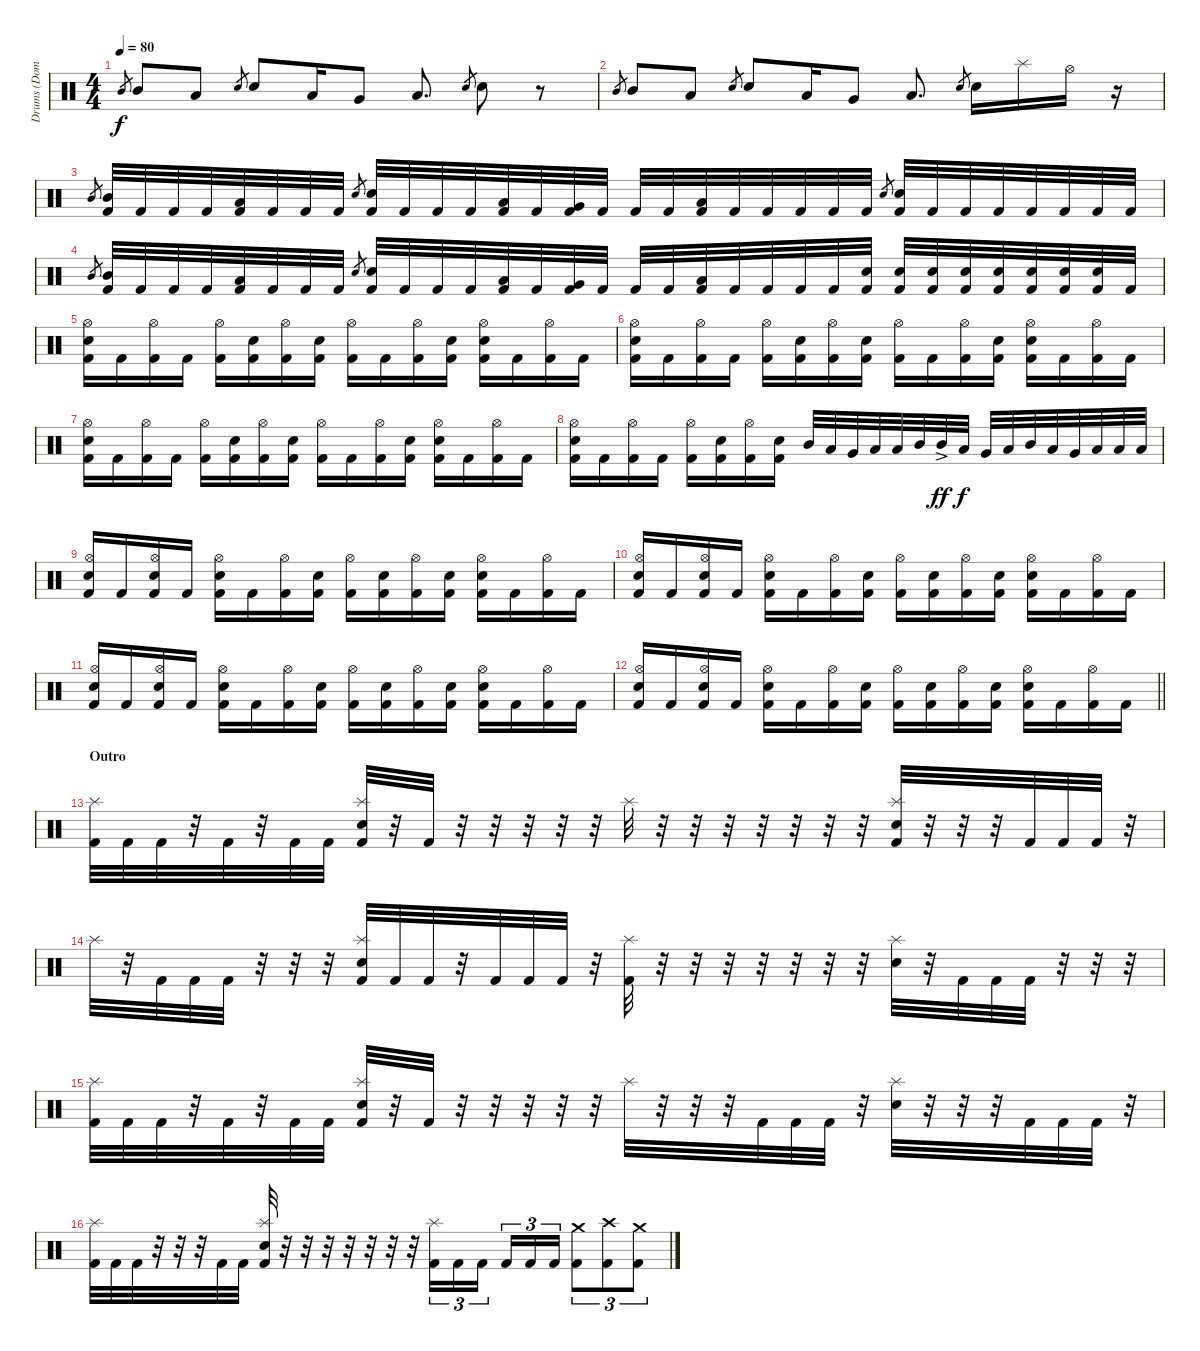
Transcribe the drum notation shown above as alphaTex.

\track ("Drums (Dominik)" "Drums (Dom") {instrument percussion}
\staff {score}
\articulation defaults
\ts (4 4)
\tempo 80
\clef neutral
\ks c "Mid Tom (hit)".8{gr dy f} "Mid Tom (hit)".8 "Low Tom (hit)".8 "Electric Snare (hit)".8{gr} "Electric Snare (hit)".8 "Low Tom (hit)".16 "Very Low Tom (hit)".8 "Low Floor Tom (hit)".8{d} "Electric Snare (hit)".8{gr} "Electric Snare (hit)".8
r.8 |
"Mid Tom (hit)".8{gr} "Mid Tom (hit)".8 "Low Tom (hit)".8 "Electric Snare (hit)".8{gr} "Electric Snare (hit)".8 "Low Tom (hit)".16 "Very Low Tom (hit)".8 "Low Floor Tom (hit)".8{d} "Electric Snare (hit)".8{gr} "Electric Snare (hit)".16 "Splash (hit)".16 "Hi-Hat (open)".16 r.16 |
"Mid Tom (hit)".8{gr} ("Mid Tom (hit)" "Kick (hit) 2").32 "Kick (hit) 2".32 "Kick (hit) 2".32 "Kick (hit) 2".32 ("Low Tom (hit)" "Kick (hit) 2").32 "Kick (hit) 2".32 "Kick (hit) 2".32 "Kick (hit) 2".32 "Electric Snare (hit)".8{gr} ("Electric Snare (hit)" "Kick (hit) 2").32 "Kick (hit) 2".32 "Kick (hit) 2".32 "Kick (hit) 2".32 ("Low Tom (hit)" "Kick (hit) 2").32 "Kick (hit) 2".32 ("Very Low Tom (hit)" "Kick (hit) 2").32 "Kick (hit) 2".32 "Kick (hit) 2".32 "Kick (hit) 2".32 ("Low Floor Tom (hit)" "Kick (hit) 2").32 "Kick (hit) 2".32 "Kick (hit) 2".32 "Kick (hit) 2".32 "Kick (hit) 2".32 "Kick (hit) 2".32 "Electric Snare (hit)".8{gr} ("Electric Snare (hit)" "Kick (hit) 2").32 "Kick (hit) 2".32 "Kick (hit) 2".32 "Kick (hit) 2".32 "Kick (hit) 2".32 "Kick (hit) 2".32 "Kick (hit) 2".32 "Kick (hit) 2".32 |
"Mid Tom (hit)".8{gr} ("Mid Tom (hit)" "Kick (hit) 2").32 "Kick (hit) 2".32 "Kick (hit) 2".32 "Kick (hit) 2".32 ("Low Tom (hit)" "Kick (hit) 2").32 "Kick (hit) 2".32 "Kick (hit) 2".32 "Kick (hit) 2".32 "Electric Snare (hit)".8{gr} ("Electric Snare (hit)" "Kick (hit) 2").32 "Kick (hit) 2".32 "Kick (hit) 2".32 "Kick (hit) 2".32 ("Low Tom (hit)" "Kick (hit) 2").32 "Kick (hit) 2".32 ("Very Low Tom (hit)" "Kick (hit) 2").32 "Kick (hit) 2".32 "Kick (hit) 2".32 "Kick (hit) 2".32 ("Low Floor Tom (hit)" "Kick (hit) 2").32 "Kick (hit) 2".32 "Kick (hit) 2".32 "Kick (hit) 2".32 "Kick (hit) 2".32 ("Electric Snare (hit)" "Kick (hit) 2").32 ("Electric Snare (hit)" "Kick (hit) 2").32 ("Electric Snare (hit)" "Kick (hit) 2").32 ("Electric Snare (hit)" "Kick (hit) 2").32 ("Electric Snare (hit)" "Kick (hit) 2").32 ("Electric Snare (hit)" "Kick (hit) 2").32 ("Electric Snare (hit)" "Kick (hit) 2").32 ("Electric Snare (hit)" "Kick (hit) 2").32 "Kick (hit) 2".32 |
("Hi-Hat (open)" "Electric Snare (hit)" "Kick (hit) 2").16 "Kick (hit) 2".16 ("Hi-Hat (open)" "Kick (hit) 2").16 "Kick (hit) 2".16 ("Hi-Hat (open)" "Kick (hit) 2").16 ("Electric Snare (hit)" "Kick (hit) 2").16 ("Hi-Hat (open)" "Kick (hit) 2").16 ("Electric Snare (hit)" "Kick (hit) 2").16 ("Hi-Hat (open)" "Kick (hit) 2").16 "Kick (hit) 2".16 ("Hi-Hat (open)" "Kick (hit) 2").16 ("Electric Snare (hit)" "Kick (hit) 2").16 ("Hi-Hat (open)" "Electric Snare (hit)" "Kick (hit) 2").16 "Kick (hit) 2".16 ("Hi-Hat (open)" "Kick (hit) 2").16 "Kick (hit) 2".16 |
("Hi-Hat (open)" "Electric Snare (hit)" "Kick (hit) 2").16 "Kick (hit) 2".16 ("Hi-Hat (open)" "Kick (hit) 2").16 "Kick (hit) 2".16 ("Hi-Hat (open)" "Kick (hit) 2").16 ("Electric Snare (hit)" "Kick (hit) 2").16 ("Hi-Hat (open)" "Kick (hit) 2").16 ("Electric Snare (hit)" "Kick (hit) 2").16 ("Hi-Hat (open)" "Kick (hit) 2").16 "Kick (hit) 2".16 ("Hi-Hat (open)" "Kick (hit) 2").16 ("Electric Snare (hit)" "Kick (hit) 2").16 ("Hi-Hat (open)" "Electric Snare (hit)" "Kick (hit) 2").16 "Kick (hit) 2".16 ("Hi-Hat (open)" "Kick (hit) 2").16 "Kick (hit) 2".16 |
("Hi-Hat (open)" "Electric Snare (hit)" "Kick (hit) 2").16 "Kick (hit) 2".16 ("Hi-Hat (open)" "Kick (hit) 2").16 "Kick (hit) 2".16 ("Hi-Hat (open)" "Kick (hit) 2").16 ("Electric Snare (hit)" "Kick (hit) 2").16 ("Hi-Hat (open)" "Kick (hit) 2").16 ("Electric Snare (hit)" "Kick (hit) 2").16 ("Hi-Hat (open)" "Kick (hit) 2").16 "Kick (hit) 2".16 ("Hi-Hat (open)" "Kick (hit) 2").16 ("Electric Snare (hit)" "Kick (hit) 2").16 ("Hi-Hat (open)" "Electric Snare (hit)" "Kick (hit) 2").16 "Kick (hit) 2".16 ("Hi-Hat (open)" "Kick (hit) 2").16 "Kick (hit) 2".16 |
("Hi-Hat (open)" "Electric Snare (hit)" "Kick (hit) 2").16 "Kick (hit) 2".16 ("Hi-Hat (open)" "Kick (hit) 2").16 "Kick (hit) 2".16 ("Hi-Hat (open)" "Kick (hit) 2").16 ("Electric Snare (hit)" "Kick (hit) 2").16 ("Hi-Hat (open)" "Kick (hit) 2").16 ("Electric Snare (hit)" "Kick (hit) 2").16 "Mid Tom (hit)".32 "Low Tom (hit)".32 "Very Low Tom (hit)".32 "Low Floor Tom (hit)".32 "Low Floor Tom (hit)".32 "Mid Tom (hit)".32 "Mid Tom (hit)"{ac}.32{dy ff} "Low Tom (hit)".32{dy f} "Very Low Tom (hit)".32 "Low Floor Tom (hit)".32 "Mid Tom (hit)".32 "Low Tom (hit)".32 "Very Low Tom (hit)".32 "Low Floor Tom (hit)".32 "Low Floor Tom (hit)".32 "Low Floor Tom (hit)".32 |
("Hi-Hat (open)" "Electric Snare (hit)" "Kick (hit) 2").16 "Kick (hit) 2".16 ("Hi-Hat (open)" "Electric Snare (hit)" "Kick (hit) 2").16 "Kick (hit) 2".16 ("Hi-Hat (open)" "Electric Snare (hit)" "Kick (hit) 2").16 "Kick (hit) 2".16 ("Hi-Hat (open)" "Kick (hit) 2").16 ("Electric Snare (hit)" "Kick (hit) 2").16 ("Hi-Hat (open)" "Kick (hit) 2").16 ("Electric Snare (hit)" "Kick (hit) 2").16 ("Hi-Hat (open)" "Kick (hit) 2").16 ("Electric Snare (hit)" "Kick (hit) 2").16 ("Hi-Hat (open)" "Electric Snare (hit)" "Kick (hit) 2").16 "Kick (hit) 2".16 ("Hi-Hat (open)" "Kick (hit) 2").16 "Kick (hit) 2".16 |
("Hi-Hat (open)" "Electric Snare (hit)" "Kick (hit) 2").16 "Kick (hit) 2".16 ("Hi-Hat (open)" "Electric Snare (hit)" "Kick (hit) 2").16 "Kick (hit) 2".16 ("Hi-Hat (open)" "Electric Snare (hit)" "Kick (hit) 2").16 "Kick (hit) 2".16 ("Hi-Hat (open)" "Kick (hit) 2").16 ("Electric Snare (hit)" "Kick (hit) 2").16 ("Hi-Hat (open)" "Kick (hit) 2").16 ("Electric Snare (hit)" "Kick (hit) 2").16 ("Hi-Hat (open)" "Kick (hit) 2").16 ("Electric Snare (hit)" "Kick (hit) 2").16 ("Hi-Hat (open)" "Electric Snare (hit)" "Kick (hit) 2").16 "Kick (hit) 2".16 ("Hi-Hat (open)" "Kick (hit) 2").16 "Kick (hit) 2".16 |
("Hi-Hat (open)" "Electric Snare (hit)" "Kick (hit) 2").16 "Kick (hit) 2".16 ("Hi-Hat (open)" "Electric Snare (hit)" "Kick (hit) 2").16 "Kick (hit) 2".16 ("Hi-Hat (open)" "Electric Snare (hit)" "Kick (hit) 2").16 "Kick (hit) 2".16 ("Hi-Hat (open)" "Kick (hit) 2").16 ("Electric Snare (hit)" "Kick (hit) 2").16 ("Hi-Hat (open)" "Kick (hit) 2").16 ("Electric Snare (hit)" "Kick (hit) 2").16 ("Hi-Hat (open)" "Kick (hit) 2").16 ("Electric Snare (hit)" "Kick (hit) 2").16 ("Hi-Hat (open)" "Electric Snare (hit)" "Kick (hit) 2").16 "Kick (hit) 2".16 ("Hi-Hat (open)" "Kick (hit) 2").16 "Kick (hit) 2".16 |
\barLineRight lightlight
("Hi-Hat (open)" "Electric Snare (hit)" "Kick (hit) 2").16 "Kick (hit) 2".16 ("Hi-Hat (open)" "Electric Snare (hit)" "Kick (hit) 2").16 "Kick (hit) 2".16 ("Hi-Hat (open)" "Electric Snare (hit)" "Kick (hit) 2").16 "Kick (hit) 2".16 ("Hi-Hat (open)" "Kick (hit) 2").16 ("Electric Snare (hit)" "Kick (hit) 2").16 ("Hi-Hat (open)" "Kick (hit) 2").16 ("Electric Snare (hit)" "Kick (hit) 2").16 ("Hi-Hat (open)" "Kick (hit) 2").16 ("Electric Snare (hit)" "Kick (hit) 2").16 ("Hi-Hat (open)" "Electric Snare (hit)" "Kick (hit) 2").16 "Kick (hit) 2".16 ("Hi-Hat (open)" "Kick (hit) 2").16 "Kick (hit) 2".16 |
\section ("" "Outro")
("Splash (hit)" "Kick (hit) 2").32 "Kick (hit) 2".32 "Kick (hit) 2".32 r.32 "Kick (hit) 2".32 r.32 "Kick (hit) 2".32 "Kick (hit) 2".32 ("Splash (hit)" "Electric Snare (hit)" "Kick (hit) 2").32 r.32 "Kick (hit) 2".32 r.32 r.32 r.32 r.32 r.32 "Splash (hit)".32 r.32 r.32 r.32 r.32 r.32 r.32 r.32 ("Splash (hit)" "Electric Snare (hit)" "Kick (hit) 2").32 r.32 r.32 r.32 "Kick (hit) 2".32 "Kick (hit) 2".32 "Kick (hit) 2".32 r.32 |
"Splash (hit)".32 r.32 "Kick (hit) 2".32 "Kick (hit) 2".32 "Kick (hit) 2".32 r.32 r.32 r.32 ("Splash (hit)" "Electric Snare (hit)" "Kick (hit) 2").32 "Kick (hit) 2".32 "Kick (hit) 2".32 r.32 "Kick (hit) 2".32 "Kick (hit) 2".32 "Kick (hit) 2".32 r.32 ("Splash (hit)" "Kick (hit) 2").32 r.32 r.32 r.32 r.32 r.32 r.32 r.32 ("Splash (hit)" "Electric Snare (hit)").32 r.32 "Kick (hit) 2".32 "Kick (hit) 2".32 "Kick (hit) 2".32 r.32 r.32 r.32 |
("Splash (hit)" "Kick (hit) 2").32 "Kick (hit) 2".32 "Kick (hit) 2".32 r.32 "Kick (hit) 2".32 r.32 "Kick (hit) 2".32 "Kick (hit) 2".32 ("Splash (hit)" "Electric Snare (hit)" "Kick (hit) 2").32 r.32 "Kick (hit) 2".32 r.32 r.32 r.32 r.32 r.32 "Splash (hit)".32 r.32 r.32 r.32 "Kick (hit) 2".32 "Kick (hit) 2".32 "Kick (hit) 2".32 r.32 ("Splash (hit)" "Electric Snare (hit)").32 r.32 r.32 r.32 "Kick (hit) 2".32 "Kick (hit) 2".32 "Kick (hit) 2".32 r.32 |
("Splash (hit)" "Kick (hit) 2").32 "Kick (hit) 2".32 "Kick (hit) 2".32 r.32 r.32 r.32 "Kick (hit) 2".32 "Kick (hit) 2".32 ("Splash (hit)" "Electric Snare (hit)" "Kick (hit) 2").32 r.32 r.32 r.32 r.32 r.32 r.32 r.32 ("Splash (hit)" "Kick (hit) 2").16{tu (3 2)} "Kick (hit) 2".16{tu (3 2)} "Kick (hit) 2".16{tu (3 2) beam splitsecondary} "Kick (hit) 2".16{tu (3 2)} "Kick (hit) 2".16{tu (3 2)} "Kick (hit) 2".16{tu (3 2)} ("Crash medium (hit)" "Kick (hit) 2").8{tu (3 2)} ("Crash high (hit)" "Kick (hit) 2").8{tu (3 2)} ("Crash medium (hit)" "Kick (hit) 2").8{tu (3 2)}
